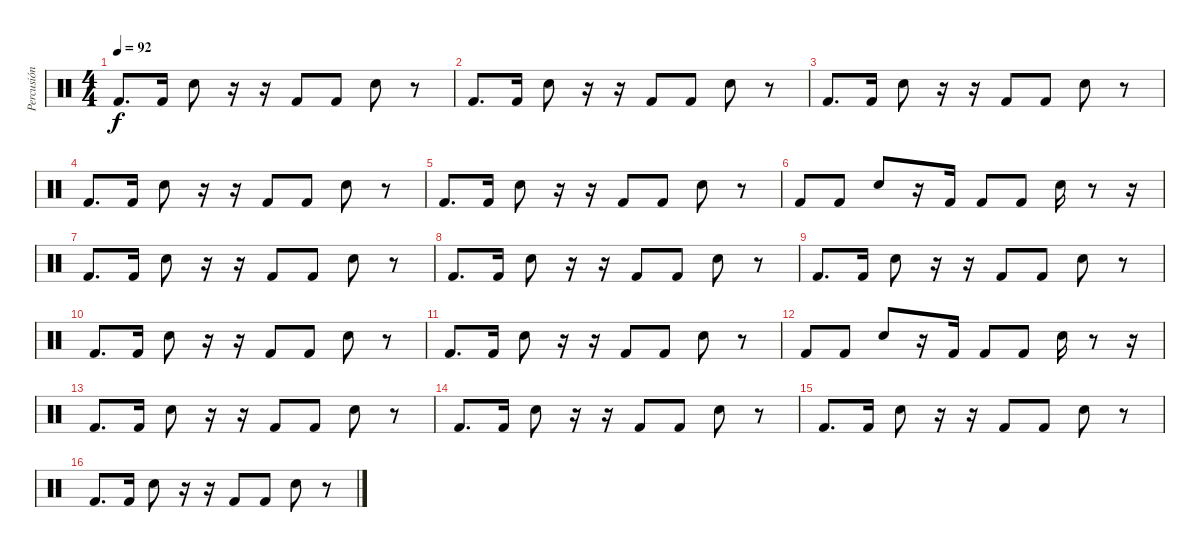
\track ("Percusión" "Percusión") {instrument percussion}
\staff {score}
\articulation defaults
\ts (4 4)
\tempo 92
\clef neutral
\ks c "Kick (hit) 2".8{d dy f} "Kick (hit) 2".16 "Snare (hit) 2".8
r.16 r.16 "Kick (hit) 2".8 "Kick (hit) 2".8 "Snare (hit) 2".8 r.8 |
"Kick (hit) 2".8{d} "Kick (hit) 2".16 "Snare (hit) 2".8 r.16 r.16 "Kick (hit) 2".8 "Kick (hit) 2".8 "Snare (hit) 2".8 r.8 |
"Kick (hit) 2".8{d} "Kick (hit) 2".16 "Snare (hit) 2".8 r.16 r.16 "Kick (hit) 2".8 "Kick (hit) 2".8 "Snare (hit) 2".8 r.8 |
"Kick (hit) 2".8{d} "Kick (hit) 2".16 "Snare (hit) 2".8 r.16 r.16 "Kick (hit) 2".8 "Kick (hit) 2".8 "Snare (hit) 2".8 r.8 |
"Kick (hit) 2".8{d} "Kick (hit) 2".16 "Snare (hit) 2".8 r.16 r.16 "Kick (hit) 2".8 "Kick (hit) 2".8 "Snare (hit) 2".8 r.8 |
"Kick (hit) 2".8 "Kick (hit) 2".8 "Snare (hit) 2".8 r.16 "Kick (hit) 2".16 "Kick (hit) 2".8 "Kick (hit) 2".8 "Snare (hit) 2".16 r.8 r.16 |
"Kick (hit) 2".8{d} "Kick (hit) 2".16 "Snare (hit) 2".8 r.16 r.16 "Kick (hit) 2".8 "Kick (hit) 2".8 "Snare (hit) 2".8 r.8 |
"Kick (hit) 2".8{d} "Kick (hit) 2".16 "Snare (hit) 2".8 r.16 r.16 "Kick (hit) 2".8 "Kick (hit) 2".8 "Snare (hit) 2".8 r.8 |
"Kick (hit) 2".8{d} "Kick (hit) 2".16 "Snare (hit) 2".8 r.16 r.16 "Kick (hit) 2".8 "Kick (hit) 2".8 "Snare (hit) 2".8 r.8 |
"Kick (hit) 2".8{d} "Kick (hit) 2".16 "Snare (hit) 2".8 r.16 r.16 "Kick (hit) 2".8 "Kick (hit) 2".8 "Snare (hit) 2".8 r.8 |
"Kick (hit) 2".8{d} "Kick (hit) 2".16 "Snare (hit) 2".8 r.16 r.16 "Kick (hit) 2".8 "Kick (hit) 2".8 "Snare (hit) 2".8 r.8 |
"Kick (hit) 2".8 "Kick (hit) 2".8 "Snare (hit) 2".8 r.16 "Kick (hit) 2".16 "Kick (hit) 2".8 "Kick (hit) 2".8 "Snare (hit) 2".16 r.8 r.16 |
"Kick (hit) 2".8{d} "Kick (hit) 2".16 "Snare (hit) 2".8 r.16 r.16 "Kick (hit) 2".8 "Kick (hit) 2".8 "Snare (hit) 2".8 r.8 |
"Kick (hit) 2".8{d} "Kick (hit) 2".16 "Snare (hit) 2".8 r.16 r.16 "Kick (hit) 2".8 "Kick (hit) 2".8 "Snare (hit) 2".8 r.8 |
"Kick (hit) 2".8{d} "Kick (hit) 2".16 "Snare (hit) 2".8 r.16 r.16 "Kick (hit) 2".8 "Kick (hit) 2".8 "Snare (hit) 2".8 r.8 |
"Kick (hit) 2".8{d} "Kick (hit) 2".16 "Snare (hit) 2".8 r.16 r.16 "Kick (hit) 2".8 "Kick (hit) 2".8 "Snare (hit) 2".8 r.8
